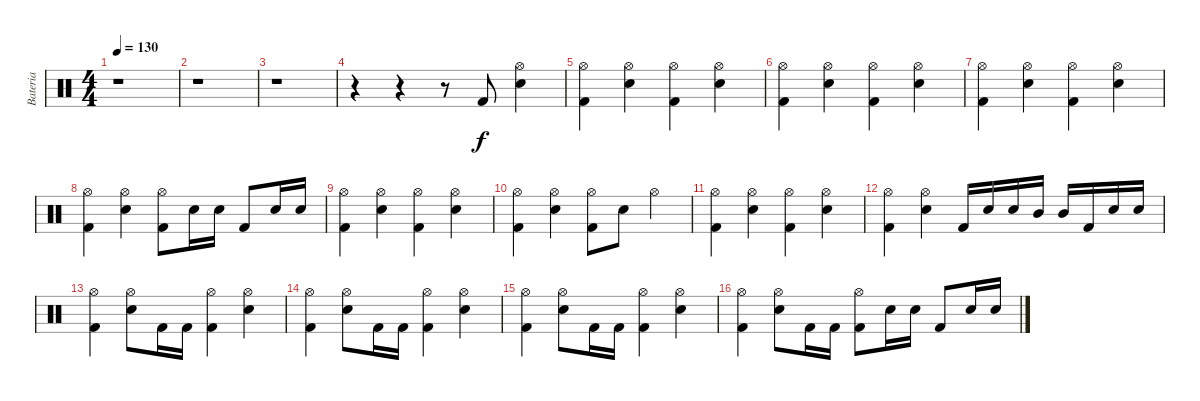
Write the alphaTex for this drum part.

\track ("Bateria" "Bateria") {instrument percussion}
\staff {score}
\articulation defaults
\ts (4 4)
\tempo 130
\clef neutral
\ks c
r.1{dy f} |
r.1 |
r.1 |
r.4 r.4 r.8 "Kick (hit) 2".8 ("Hi-Hat (open)" "Electric Snare (hit)").4 |
("Hi-Hat (open)" "Kick (hit) 2").4 ("Hi-Hat (open)" "Electric Snare (hit)").4 ("Hi-Hat (open)" "Kick (hit) 2").4 ("Hi-Hat (open)" "Electric Snare (hit)").4 |
("Hi-Hat (open)" "Kick (hit) 2").4 ("Hi-Hat (open)" "Electric Snare (hit)").4 ("Hi-Hat (open)" "Kick (hit) 2").4 ("Hi-Hat (open)" "Electric Snare (hit)").4 |
("Hi-Hat (open)" "Kick (hit) 2").4 ("Hi-Hat (open)" "Electric Snare (hit)").4 ("Hi-Hat (open)" "Kick (hit) 2").4 ("Hi-Hat (open)" "Electric Snare (hit)").4 |
("Hi-Hat (open)" "Kick (hit) 2").4 ("Hi-Hat (open)" "Electric Snare (hit)").4 ("Hi-Hat (open)" "Kick (hit) 2").8 "Electric Snare (hit)".16 "Electric Snare (hit)".16 "Kick (hit) 2".8 "Electric Snare (hit)".16 "Electric Snare (hit)".16 |
("Hi-Hat (open)" "Kick (hit) 2").4 ("Hi-Hat (open)" "Electric Snare (hit)").4 ("Hi-Hat (open)" "Kick (hit) 2").4 ("Hi-Hat (open)" "Electric Snare (hit)").4 |
("Hi-Hat (open)" "Kick (hit) 2").4 ("Hi-Hat (open)" "Electric Snare (hit)").4 ("Hi-Hat (open)" "Kick (hit) 2").8 "Electric Snare (hit)".8 "Hi-Hat (open)".4 |
("Hi-Hat (open)" "Kick (hit) 2").4 ("Hi-Hat (open)" "Electric Snare (hit)").4 ("Hi-Hat (open)" "Kick (hit) 2").4 ("Hi-Hat (open)" "Electric Snare (hit)").4 |
("Hi-Hat (open)" "Kick (hit) 2").4 ("Hi-Hat (open)" "Electric Snare (hit)").4 "Kick (hit) 2".16 "Electric Snare (hit)".16 "Electric Snare (hit)".16 "Mid Tom (hit)".16 "Mid Tom (hit)".16 "Kick (hit) 2".16 "Electric Snare (hit)".16 "Electric Snare (hit)".16 |
("Hi-Hat (open)" "Kick (hit) 2").4 ("Hi-Hat (open)" "Electric Snare (hit)").8 "Kick (hit) 2".16 "Kick (hit) 2".16 ("Hi-Hat (open)" "Kick (hit) 2").4 ("Hi-Hat (open)" "Electric Snare (hit)").4 |
("Hi-Hat (open)" "Kick (hit) 2").4 ("Hi-Hat (open)" "Electric Snare (hit)").8 "Kick (hit) 2".16 "Kick (hit) 2".16 ("Hi-Hat (open)" "Kick (hit) 2").4 ("Hi-Hat (open)" "Electric Snare (hit)").4 |
("Hi-Hat (open)" "Kick (hit) 2").4 ("Hi-Hat (open)" "Electric Snare (hit)").8 "Kick (hit) 2".16 "Kick (hit) 2".16 ("Hi-Hat (open)" "Kick (hit) 2").4 ("Hi-Hat (open)" "Electric Snare (hit)").4 |
("Hi-Hat (open)" "Kick (hit) 2").4 ("Hi-Hat (open)" "Electric Snare (hit)").8 "Kick (hit) 2".16 "Kick (hit) 2".16 ("Hi-Hat (open)" "Kick (hit) 2").8 "Electric Snare (hit)".16 "Electric Snare (hit)".16 "Kick (hit) 2".8 "Electric Snare (hit)".16 "Electric Snare (hit)".16
